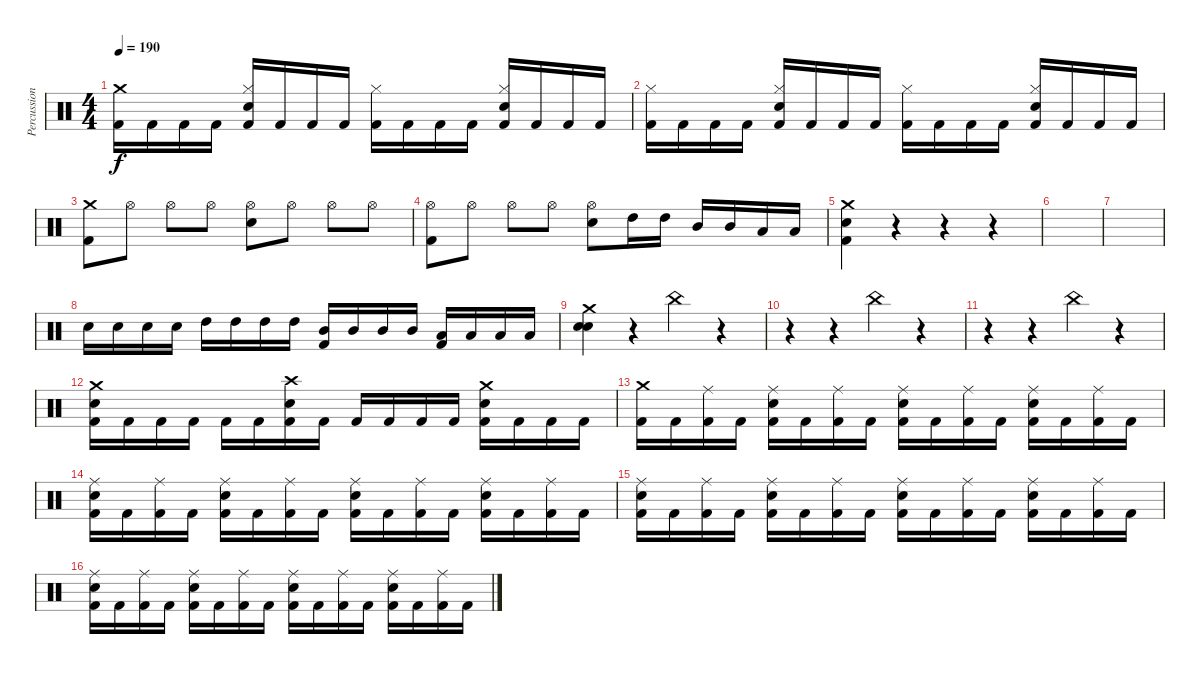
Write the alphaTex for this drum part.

\track ("Percussions" "Percussion") {instrument percussion}
\staff {score}
\articulation defaults
\ts (4 4)
\tempo 190
\clef neutral
\ks c
("Crash medium (hit)" "Kick (hit) 2").16{dy f} "Kick (hit) 2".16 "Kick (hit) 2".16 "Kick (hit) 2".16 ("Hi-Hat (closed)" "Electric Snare (hit)" "Kick (hit) 2").16 "Kick (hit) 2".16 "Kick (hit) 2".16 "Kick (hit) 2".16 ("Hi-Hat (closed)" "Kick (hit) 2").16 "Kick (hit) 2".16 "Kick (hit) 2".16 "Kick (hit) 2".16 ("Hi-Hat (closed)" "Electric Snare (hit)" "Kick (hit) 2").16 "Kick (hit) 2".16 "Kick (hit) 2".16 "Kick (hit) 2".16 |
("Hi-Hat (closed)" "Kick (hit) 2").16 "Kick (hit) 2".16 "Kick (hit) 2".16 "Kick (hit) 2".16 ("Hi-Hat (closed)" "Electric Snare (hit)" "Kick (hit) 2").16 "Kick (hit) 2".16 "Kick (hit) 2".16 "Kick (hit) 2".16 ("Hi-Hat (closed)" "Kick (hit) 2").16 "Kick (hit) 2".16 "Kick (hit) 2".16 "Kick (hit) 2".16 ("Hi-Hat (closed)" "Electric Snare (hit)" "Kick (hit) 2").16 "Kick (hit) 2".16 "Kick (hit) 2".16 "Kick (hit) 2".16 |
("Crash medium (hit)" "Kick (hit) 2").8 "Hi-Hat (open)".8 "Hi-Hat (open)".8 "Hi-Hat (open)".8 ("Hi-Hat (open)" "Electric Snare (hit)").8 "Hi-Hat (open)".8 "Hi-Hat (open)".8 "Hi-Hat (open)".8 |
("Hi-Hat (open)" "Kick (hit) 2").8 "Hi-Hat (open)".8 "Hi-Hat (open)".8 "Hi-Hat (open)".8 ("Hi-Hat (open)" "Electric Snare (hit)").8 "High Tom (hit)".16 "High Tom (hit)".16 "Mid Tom (hit)".16 "Mid Tom (hit)".16 "Low Tom (hit)".16 "Low Tom (hit)".16 |
("Crash medium (hit)" "Electric Snare (hit)" "Kick (hit) 2").4 r.4 r.4 r.4 |
|
|
"Electric Snare (hit)".16 "Electric Snare (hit)".16 "Electric Snare (hit)".16 "Electric Snare (hit)".16 "High Tom (hit)".16 "High Tom (hit)".16 "High Tom (hit)".16 "High Tom (hit)".16 ("Mid Tom (hit)" "Kick (hit) 2").16 "Mid Tom (hit)".16 "Mid Tom (hit)".16 "Mid Tom (hit)".16 ("Low Tom (hit)" "Kick (hit) 2").16 "Low Tom (hit)".16 "Low Tom (hit)".16 "Low Tom (hit)".16 |
("Crash medium (hit)" "Electric Snare (hit)" "Electric Snare (hit)").4 r.4 "China (hit)".4 r.4 |
r.4 r.4 "China (hit)".4 r.4 |
r.4 r.4 "China (hit)".4 r.4 |
("Crash medium (hit)" "Electric Snare (hit)" "Kick (hit) 2").16 "Kick (hit) 2".16 "Kick (hit) 2".16 "Kick (hit) 2".16 "Kick (hit) 2".16 "Kick (hit) 2".16 ("Crash high (hit)" "Electric Snare (hit)" "Kick (hit) 2").16 "Kick (hit) 2".16 "Kick (hit) 2".16 "Kick (hit) 2".16 "Kick (hit) 2".16 "Kick (hit) 2".16 ("Crash medium (hit)" "Electric Snare (hit)" "Kick (hit) 2").16 "Kick (hit) 2".16 "Kick (hit) 2".16 "Kick (hit) 2".16 |
("Crash medium (hit)" "Kick (hit) 2").16 "Kick (hit) 2".16 ("Ride (middle)" "Kick (hit) 2").16 "Kick (hit) 2".16 ("Ride (middle)" "Electric Snare (hit)" "Kick (hit) 2").16 "Kick (hit) 2".16 ("Ride (middle)" "Kick (hit) 2").16 "Kick (hit) 2".16 ("Ride (middle)" "Electric Snare (hit)" "Kick (hit) 2").16 "Kick (hit) 2".16 ("Ride (middle)" "Kick (hit) 2").16 "Kick (hit) 2".16 ("Ride (middle)" "Electric Snare (hit)" "Kick (hit) 2").16 "Kick (hit) 2".16 ("Ride (middle)" "Kick (hit) 2").16 "Kick (hit) 2".16 |
("Ride (middle)" "Electric Snare (hit)" "Kick (hit) 2").16 "Kick (hit) 2".16 ("Ride (middle)" "Kick (hit) 2").16 "Kick (hit) 2".16 ("Ride (middle)" "Electric Snare (hit)" "Kick (hit) 2").16 "Kick (hit) 2".16 ("Ride (middle)" "Kick (hit) 2").16 "Kick (hit) 2".16 ("Ride (middle)" "Electric Snare (hit)" "Kick (hit) 2").16 "Kick (hit) 2".16 ("Ride (middle)" "Kick (hit) 2").16 "Kick (hit) 2".16 ("Ride (middle)" "Electric Snare (hit)" "Kick (hit) 2").16 "Kick (hit) 2".16 ("Ride (middle)" "Kick (hit) 2").16 "Kick (hit) 2".16 |
("Ride (middle)" "Electric Snare (hit)" "Kick (hit) 2").16 "Kick (hit) 2".16 ("Ride (middle)" "Kick (hit) 2").16 "Kick (hit) 2".16 ("Ride (middle)" "Electric Snare (hit)" "Kick (hit) 2").16 "Kick (hit) 2".16 ("Ride (middle)" "Kick (hit) 2").16 "Kick (hit) 2".16 ("Ride (middle)" "Electric Snare (hit)" "Kick (hit) 2").16 "Kick (hit) 2".16 ("Ride (middle)" "Kick (hit) 2").16 "Kick (hit) 2".16 ("Ride (middle)" "Electric Snare (hit)" "Kick (hit) 2").16 "Kick (hit) 2".16 ("Ride (middle)" "Kick (hit) 2").16 "Kick (hit) 2".16 |
("Ride (middle)" "Electric Snare (hit)" "Kick (hit) 2").16 "Kick (hit) 2".16 ("Ride (middle)" "Kick (hit) 2").16 "Kick (hit) 2".16 ("Ride (middle)" "Electric Snare (hit)" "Kick (hit) 2").16 "Kick (hit) 2".16 ("Ride (middle)" "Kick (hit) 2").16 "Kick (hit) 2".16 ("Ride (middle)" "Electric Snare (hit)" "Kick (hit) 2").16 "Kick (hit) 2".16 ("Ride (middle)" "Kick (hit) 2").16 "Kick (hit) 2".16 ("Ride (middle)" "Electric Snare (hit)" "Kick (hit) 2").16 "Kick (hit) 2".16 ("Ride (middle)" "Kick (hit) 2").16 "Kick (hit) 2".16
